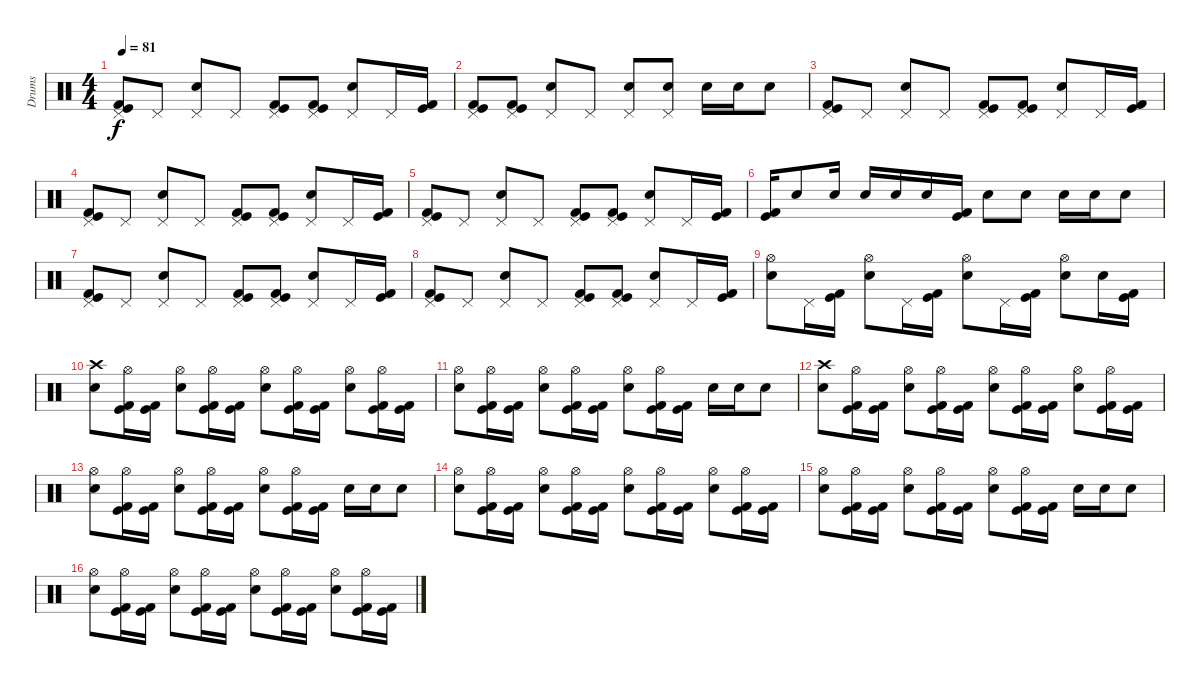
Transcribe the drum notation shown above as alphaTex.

\track ("Drums" "Drums") {instrument percussion}
\staff {score}
\articulation defaults
\ts (4 4)
\tempo 81
\clef neutral
\ks c
("Pedal Hi-Hat (hit)" "Kick (hit)" "Kick (hit) 2").8{dy f} "Pedal Hi-Hat (hit)".8 ("Pedal Hi-Hat (hit)" "Electric Snare (hit)").8 "Pedal Hi-Hat (hit)".8 ("Pedal Hi-Hat (hit)" "Kick (hit)" "Kick (hit) 2").8 ("Pedal Hi-Hat (hit)" "Kick (hit)" "Kick (hit) 2").8 ("Pedal Hi-Hat (hit)" "Electric Snare (hit)").8 "Pedal Hi-Hat (hit)".16 ("Kick (hit)" "Kick (hit) 2").16 |
("Pedal Hi-Hat (hit)" "Kick (hit)" "Kick (hit) 2").8 ("Pedal Hi-Hat (hit)" "Kick (hit)" "Kick (hit) 2").8 ("Pedal Hi-Hat (hit)" "Electric Snare (hit)").8 "Pedal Hi-Hat (hit)".8 ("Pedal Hi-Hat (hit)" "Electric Snare (hit)").8 ("Pedal Hi-Hat (hit)" "Electric Snare (hit)").8 "Electric Snare (hit)".16 "Electric Snare (hit)".16 "Electric Snare (hit)".8 |
("Pedal Hi-Hat (hit)" "Kick (hit)" "Kick (hit) 2").8 "Pedal Hi-Hat (hit)".8 ("Pedal Hi-Hat (hit)" "Electric Snare (hit)").8 "Pedal Hi-Hat (hit)".8 ("Pedal Hi-Hat (hit)" "Kick (hit)" "Kick (hit) 2").8 ("Pedal Hi-Hat (hit)" "Kick (hit)" "Kick (hit) 2").8 ("Pedal Hi-Hat (hit)" "Electric Snare (hit)").8 "Pedal Hi-Hat (hit)".16 ("Kick (hit)" "Kick (hit) 2").16 |
("Pedal Hi-Hat (hit)" "Kick (hit)" "Kick (hit) 2").8 "Pedal Hi-Hat (hit)".8 ("Pedal Hi-Hat (hit)" "Electric Snare (hit)").8 "Pedal Hi-Hat (hit)".8 ("Pedal Hi-Hat (hit)" "Kick (hit)" "Kick (hit) 2").8 ("Pedal Hi-Hat (hit)" "Kick (hit)" "Kick (hit) 2").8 ("Pedal Hi-Hat (hit)" "Electric Snare (hit)").8 "Pedal Hi-Hat (hit)".16 ("Kick (hit)" "Kick (hit) 2").16 |
("Pedal Hi-Hat (hit)" "Kick (hit)" "Kick (hit) 2").8 "Pedal Hi-Hat (hit)".8 ("Pedal Hi-Hat (hit)" "Electric Snare (hit)").8 "Pedal Hi-Hat (hit)".8 ("Pedal Hi-Hat (hit)" "Kick (hit)" "Kick (hit) 2").8 ("Pedal Hi-Hat (hit)" "Kick (hit)" "Kick (hit) 2").8 ("Pedal Hi-Hat (hit)" "Electric Snare (hit)").8 "Pedal Hi-Hat (hit)".16 ("Kick (hit)" "Kick (hit) 2").16 |
("Kick (hit)" "Kick (hit) 2").16 "Electric Snare (hit)".8 "Electric Snare (hit)".16 "Electric Snare (hit)".16 "Electric Snare (hit)".16 "Electric Snare (hit)".16 ("Kick (hit)" "Kick (hit) 2").16 "Electric Snare (hit)".8 "Electric Snare (hit)".8 "Electric Snare (hit)".16 "Electric Snare (hit)".16 "Electric Snare (hit)".8 |
("Pedal Hi-Hat (hit)" "Kick (hit)" "Kick (hit) 2").8 "Pedal Hi-Hat (hit)".8 ("Pedal Hi-Hat (hit)" "Electric Snare (hit)").8 "Pedal Hi-Hat (hit)".8 ("Pedal Hi-Hat (hit)" "Kick (hit)" "Kick (hit) 2").8 ("Pedal Hi-Hat (hit)" "Kick (hit)" "Kick (hit) 2").8 ("Pedal Hi-Hat (hit)" "Electric Snare (hit)").8 "Pedal Hi-Hat (hit)".16 ("Kick (hit)" "Kick (hit) 2").16 |
("Pedal Hi-Hat (hit)" "Kick (hit)" "Kick (hit) 2").8 "Pedal Hi-Hat (hit)".8 ("Pedal Hi-Hat (hit)" "Electric Snare (hit)").8 "Pedal Hi-Hat (hit)".8 ("Pedal Hi-Hat (hit)" "Kick (hit)" "Kick (hit) 2").8 ("Pedal Hi-Hat (hit)" "Kick (hit)" "Kick (hit) 2").8 ("Pedal Hi-Hat (hit)" "Electric Snare (hit)").8 "Pedal Hi-Hat (hit)".16 ("Kick (hit)" "Kick (hit) 2").16 |
("Hi-Hat (open)" "Electric Snare (hit)").8 "Pedal Hi-Hat (hit)".16 ("Kick (hit)" "Kick (hit) 2").16 ("Hi-Hat (open)" "Electric Snare (hit)").8 "Pedal Hi-Hat (hit)".16 ("Kick (hit)" "Kick (hit) 2").16 ("Hi-Hat (open)" "Electric Snare (hit)").8 "Pedal Hi-Hat (hit)".16 ("Kick (hit)" "Kick (hit) 2").16 ("Hi-Hat (open)" "Electric Snare (hit)").8 "Electric Snare (hit)".16 ("Kick (hit)" "Kick (hit) 2").16 |
("Crash high (hit)" "Electric Snare (hit)").8 ("Hi-Hat (open)" "Kick (hit)" "Kick (hit) 2").16 ("Kick (hit)" "Kick (hit) 2").16 ("Hi-Hat (open)" "Electric Snare (hit)").8 ("Hi-Hat (open)" "Kick (hit)" "Kick (hit) 2").16 ("Kick (hit)" "Kick (hit) 2").16 ("Hi-Hat (open)" "Electric Snare (hit)").8 ("Hi-Hat (open)" "Kick (hit)" "Kick (hit) 2").16 ("Kick (hit)" "Kick (hit) 2").16 ("Hi-Hat (open)" "Electric Snare (hit)").8 ("Hi-Hat (open)" "Kick (hit)" "Kick (hit) 2").16 ("Kick (hit)" "Kick (hit) 2").16 |
("Hi-Hat (open)" "Electric Snare (hit)").8 ("Hi-Hat (open)" "Kick (hit)" "Kick (hit) 2").16 ("Kick (hit)" "Kick (hit) 2").16 ("Hi-Hat (open)" "Electric Snare (hit)").8 ("Hi-Hat (open)" "Kick (hit)" "Kick (hit) 2").16 ("Kick (hit)" "Kick (hit) 2").16 ("Hi-Hat (open)" "Electric Snare (hit)").8 ("Hi-Hat (open)" "Kick (hit)" "Kick (hit) 2").16 ("Kick (hit)" "Kick (hit) 2").16 "Electric Snare (hit)".16 "Electric Snare (hit)".16 "Electric Snare (hit)".8 |
("Crash high (hit)" "Electric Snare (hit)").8 ("Hi-Hat (open)" "Kick (hit)" "Kick (hit) 2").16 ("Kick (hit)" "Kick (hit) 2").16 ("Hi-Hat (open)" "Electric Snare (hit)").8 ("Hi-Hat (open)" "Kick (hit)" "Kick (hit) 2").16 ("Kick (hit)" "Kick (hit) 2").16 ("Hi-Hat (open)" "Electric Snare (hit)").8 ("Hi-Hat (open)" "Kick (hit)" "Kick (hit) 2").16 ("Kick (hit)" "Kick (hit) 2").16 ("Hi-Hat (open)" "Electric Snare (hit)").8 ("Hi-Hat (open)" "Kick (hit)" "Kick (hit) 2").16 ("Kick (hit)" "Kick (hit) 2").16 |
("Hi-Hat (open)" "Electric Snare (hit)").8 ("Hi-Hat (open)" "Kick (hit)" "Kick (hit) 2").16 ("Kick (hit)" "Kick (hit) 2").16 ("Hi-Hat (open)" "Electric Snare (hit)").8 ("Hi-Hat (open)" "Kick (hit)" "Kick (hit) 2").16 ("Kick (hit)" "Kick (hit) 2").16 ("Hi-Hat (open)" "Electric Snare (hit)").8 ("Hi-Hat (open)" "Kick (hit)" "Kick (hit) 2").16 ("Kick (hit)" "Kick (hit) 2").16 "Electric Snare (hit)".16 "Electric Snare (hit)".16 "Electric Snare (hit)".8 |
("Hi-Hat (open)" "Electric Snare (hit)").8 ("Hi-Hat (open)" "Kick (hit)" "Kick (hit) 2").16 ("Kick (hit)" "Kick (hit) 2").16 ("Hi-Hat (open)" "Electric Snare (hit)").8 ("Hi-Hat (open)" "Kick (hit)" "Kick (hit) 2").16 ("Kick (hit)" "Kick (hit) 2").16 ("Hi-Hat (open)" "Electric Snare (hit)").8 ("Hi-Hat (open)" "Kick (hit)" "Kick (hit) 2").16 ("Kick (hit)" "Kick (hit) 2").16 ("Hi-Hat (open)" "Electric Snare (hit)").8 ("Hi-Hat (open)" "Kick (hit)" "Kick (hit) 2").16 ("Kick (hit)" "Kick (hit) 2").16 |
("Hi-Hat (open)" "Electric Snare (hit)").8 ("Hi-Hat (open)" "Kick (hit)" "Kick (hit) 2").16 ("Kick (hit)" "Kick (hit) 2").16 ("Hi-Hat (open)" "Electric Snare (hit)").8 ("Hi-Hat (open)" "Kick (hit)" "Kick (hit) 2").16 ("Kick (hit)" "Kick (hit) 2").16 ("Hi-Hat (open)" "Electric Snare (hit)").8 ("Hi-Hat (open)" "Kick (hit)" "Kick (hit) 2").16 ("Kick (hit)" "Kick (hit) 2").16 "Electric Snare (hit)".16 "Electric Snare (hit)".16 "Electric Snare (hit)".8 |
("Hi-Hat (open)" "Electric Snare (hit)").8 ("Hi-Hat (open)" "Kick (hit)" "Kick (hit) 2").16 ("Kick (hit)" "Kick (hit) 2").16 ("Hi-Hat (open)" "Electric Snare (hit)").8 ("Hi-Hat (open)" "Kick (hit)" "Kick (hit) 2").16 ("Kick (hit)" "Kick (hit) 2").16 ("Hi-Hat (open)" "Electric Snare (hit)").8 ("Hi-Hat (open)" "Kick (hit)" "Kick (hit) 2").16 ("Kick (hit)" "Kick (hit) 2").16 ("Hi-Hat (open)" "Electric Snare (hit)").8 ("Hi-Hat (open)" "Kick (hit)" "Kick (hit) 2").16 ("Kick (hit)" "Kick (hit) 2").16
